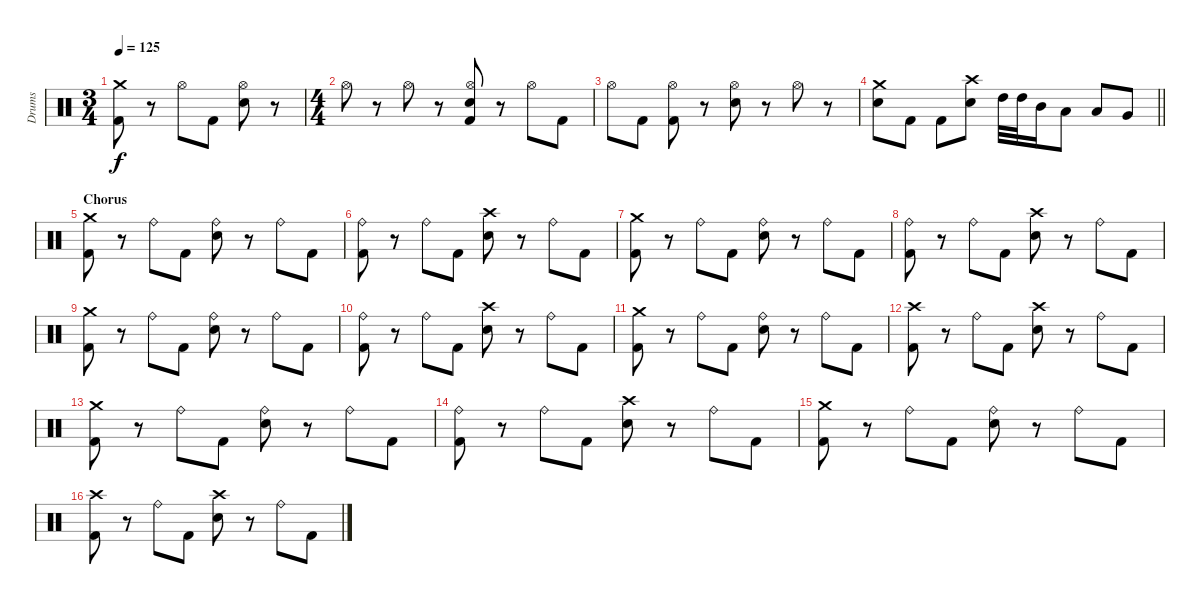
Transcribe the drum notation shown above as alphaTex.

\track ("Drums " "Drums ") {instrument percussion}
\staff {score}
\articulation defaults
\ts (3 4)
\tempo 125
\clef neutral
\ks c
("Crash medium (hit)" "Kick (hit) 2").8{dy f} r.8 "Hi-Hat (open)".8 "Kick (hit) 2".8 ("Hi-Hat (open)" "Electric Snare (hit)").8 r.8 |
\ts (4 4)
"Hi-Hat (open)".8 r.8 "Hi-Hat (open)".8 r.8 ("Hi-Hat (open)" "Electric Snare (hit)" "Kick (hit) 2").8 r.8 "Hi-Hat (open)".8 "Kick (hit) 2".8 |
"Hi-Hat (open)".8 "Kick (hit) 2".8 ("Hi-Hat (open)" "Kick (hit) 2").8 r.8 ("Hi-Hat (open)" "Electric Snare (hit)").8 r.8 "Hi-Hat (open)".8 r.8 |
\barLineRight lightlight
("Crash medium (hit)" "Electric Snare (hit)").8 "Kick (hit) 2".8 "Kick (hit) 2".8 ("Crash high (hit)" "Electric Snare (hit)").8 "High Tom (hit)".32 "High Tom (hit)".32 "Mid Tom (hit)".16 "Low Tom (hit)".8 "Low Tom (hit)".8 "Very Low Tom (hit)".8 |
\section ("" "Chorus")
("Crash medium (hit)" "Kick (hit) 2").8 r.8 "Ride (bell)".8 "Kick (hit) 2".8 ("Ride (bell)" "Electric Snare (hit)").8 r.8 "Ride (bell)".8 "Kick (hit) 2".8 |
("Ride (bell)" "Kick (hit) 2").8 r.8 "Ride (bell)".8 "Kick (hit) 2".8 ("Crash high (hit)" "Electric Snare (hit)").8 r.8 "Ride (bell)".8 "Kick (hit) 2".8 |
("Crash medium (hit)" "Kick (hit) 2").8 r.8 "Ride (bell)".8 "Kick (hit) 2".8 ("Ride (bell)" "Electric Snare (hit)").8 r.8 "Ride (bell)".8 "Kick (hit) 2".8 |
("Ride (bell)" "Kick (hit) 2").8 r.8 "Ride (bell)".8 "Kick (hit) 2".8 ("Crash high (hit)" "Electric Snare (hit)").8 r.8 "Ride (bell)".8 "Kick (hit) 2".8 |
("Crash medium (hit)" "Kick (hit) 2").8 r.8 "Ride (bell)".8 "Kick (hit) 2".8 ("Ride (bell)" "Electric Snare (hit)").8 r.8 "Ride (bell)".8 "Kick (hit) 2".8 |
("Ride (bell)" "Kick (hit) 2").8 r.8 "Ride (bell)".8 "Kick (hit) 2".8 ("Crash high (hit)" "Electric Snare (hit)").8 r.8 "Ride (bell)".8 "Kick (hit) 2".8 |
("Crash medium (hit)" "Kick (hit) 2").8 r.8 "Ride (bell)".8 "Kick (hit) 2".8 ("Ride (bell)" "Electric Snare (hit)").8 r.8 "Ride (bell)".8 "Kick (hit) 2".8 |
("Crash high (hit)" "Kick (hit) 2").8 r.8 "Ride (bell)".8 "Kick (hit) 2".8 ("Crash high (hit)" "Electric Snare (hit)").8 r.8 "Ride (bell)".8 "Kick (hit) 2".8 |
("Crash medium (hit)" "Kick (hit) 2").8 r.8 "Ride (bell)".8 "Kick (hit) 2".8 ("Ride (bell)" "Electric Snare (hit)").8 r.8 "Ride (bell)".8 "Kick (hit) 2".8 |
("Ride (bell)" "Kick (hit) 2").8 r.8 "Ride (bell)".8 "Kick (hit) 2".8 ("Crash high (hit)" "Electric Snare (hit)").8 r.8 "Ride (bell)".8 "Kick (hit) 2".8 |
("Crash medium (hit)" "Kick (hit) 2").8 r.8 "Ride (bell)".8 "Kick (hit) 2".8 ("Ride (bell)" "Electric Snare (hit)").8 r.8 "Ride (bell)".8 "Kick (hit) 2".8 |
("Crash high (hit)" "Kick (hit) 2").8 r.8 "Ride (bell)".8 "Kick (hit) 2".8 ("Crash high (hit)" "Electric Snare (hit)").8 r.8 "Ride (bell)".8 "Kick (hit) 2".8
